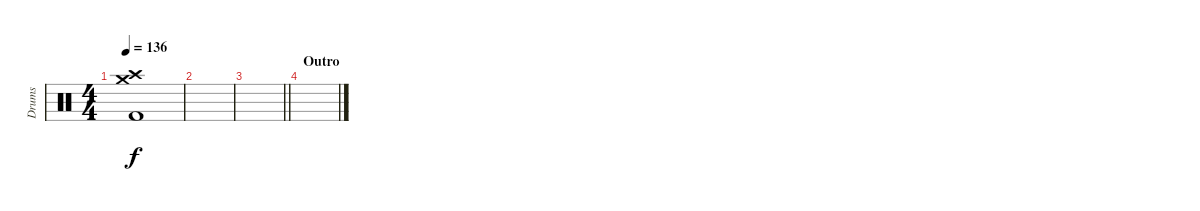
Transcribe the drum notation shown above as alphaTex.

\track ("Drums" "Drums") {instrument percussion}
\staff {score}
\articulation defaults
\ts (4 4)
\tempo 136
\clef neutral
\ks c
("Crash high (hit)" "Crash medium (hit)" "Kick (hit) 2").1{dy f} |
|
\barLineRight lightlight
|
\section ("" "Outro")
